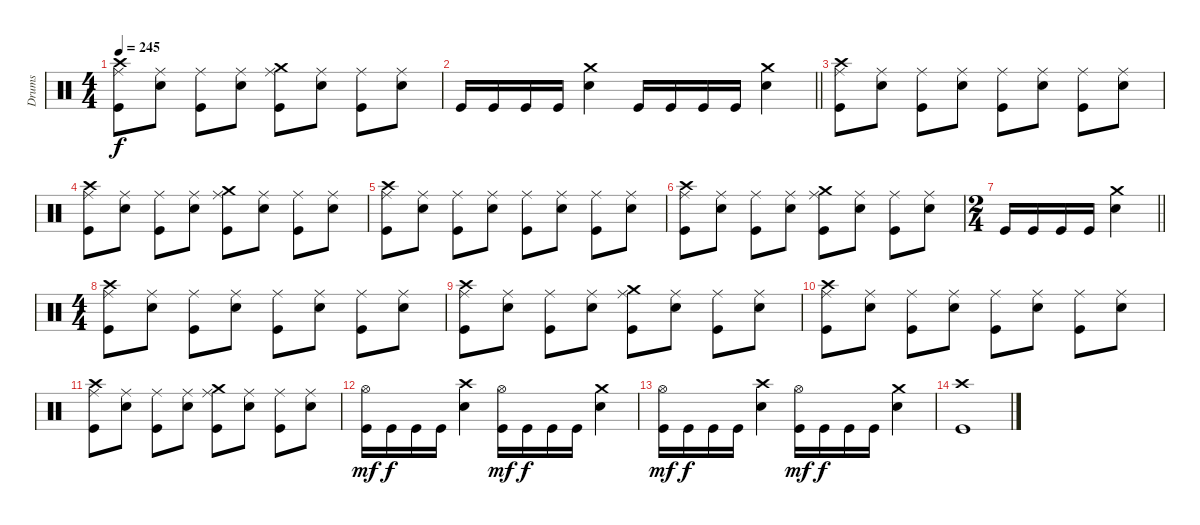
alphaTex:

\track ("Drums" "Drums") {instrument percussion}
\staff {score}
\articulation defaults
\ts (4 4)
\tempo 245
\clef neutral
\ks c
("Crash high (hit)" "Ride (middle)" "Kick (hit)").8{dy f} ("Ride (middle)" "Electric Snare (hit)").8 ("Ride (middle)" "Kick (hit)").8 ("Ride (middle)" "Electric Snare (hit)").8 ("Crash medium (hit)" "Ride (middle)" "Kick (hit)").8 ("Ride (middle)" "Electric Snare (hit)").8 ("Ride (middle)" "Kick (hit)").8 ("Ride (middle)" "Electric Snare (hit)").8 |
\barLineRight lightlight "Kick (hit)".16 "Kick (hit)".16 "Kick (hit)".16 "Kick (hit)".16
("Crash medium (hit)" "Electric Snare (hit)").4 "Kick (hit)".16 "Kick (hit)".16 "Kick (hit)".16 "Kick (hit)".16 ("Crash medium (hit)" "Electric Snare (hit)").4 |
("Crash high (hit)" "Ride (middle)" "Kick (hit)").8 ("Ride (middle)" "Electric Snare (hit)").8 ("Ride (middle)" "Kick (hit)").8 ("Ride (middle)" "Electric Snare (hit)").8 ("Ride (middle)" "Kick (hit)").8 ("Ride (middle)" "Electric Snare (hit)").8 ("Ride (middle)" "Kick (hit)").8 ("Ride (middle)" "Electric Snare (hit)").8 |
("Crash high (hit)" "Ride (middle)" "Kick (hit)").8 ("Ride (middle)" "Electric Snare (hit)").8 ("Ride (middle)" "Kick (hit)").8 ("Ride (middle)" "Electric Snare (hit)").8 ("Crash medium (hit)" "Ride (middle)" "Kick (hit)").8 ("Ride (middle)" "Electric Snare (hit)").8 ("Ride (middle)" "Kick (hit)").8 ("Ride (middle)" "Electric Snare (hit)").8 |
("Crash high (hit)" "Ride (middle)" "Kick (hit)").8 ("Ride (middle)" "Electric Snare (hit)").8 ("Ride (middle)" "Kick (hit)").8 ("Ride (middle)" "Electric Snare (hit)").8 ("Ride (middle)" "Kick (hit)").8 ("Ride (middle)" "Electric Snare (hit)").8 ("Ride (middle)" "Kick (hit)").8 ("Ride (middle)" "Electric Snare (hit)").8 |
("Crash high (hit)" "Ride (middle)" "Kick (hit)").8 ("Ride (middle)" "Electric Snare (hit)").8 ("Ride (middle)" "Kick (hit)").8 ("Ride (middle)" "Electric Snare (hit)").8 ("Crash medium (hit)" "Ride (middle)" "Kick (hit)").8 ("Ride (middle)" "Electric Snare (hit)").8 ("Ride (middle)" "Kick (hit)").8 ("Ride (middle)" "Electric Snare (hit)").8 |
\ts (2 4)
\barLineRight lightlight "Kick (hit)".16 "Kick (hit)".16 "Kick (hit)".16 "Kick (hit)".16
("Crash medium (hit)" "Electric Snare (hit)").4 |
\ts (4 4)
("Crash high (hit)" "Ride (middle)" "Kick (hit)").8 ("Ride (middle)" "Electric Snare (hit)").8 ("Ride (middle)" "Kick (hit)").8 ("Ride (middle)" "Electric Snare (hit)").8 ("Ride (middle)" "Kick (hit)").8 ("Ride (middle)" "Electric Snare (hit)").8 ("Ride (middle)" "Kick (hit)").8 ("Ride (middle)" "Electric Snare (hit)").8 |
("Crash high (hit)" "Ride (middle)" "Kick (hit)").8 ("Ride (middle)" "Electric Snare (hit)").8 ("Ride (middle)" "Kick (hit)").8 ("Ride (middle)" "Electric Snare (hit)").8 ("Crash medium (hit)" "Ride (middle)" "Kick (hit)").8 ("Ride (middle)" "Electric Snare (hit)").8 ("Ride (middle)" "Kick (hit)").8 ("Ride (middle)" "Electric Snare (hit)").8 |
("Crash high (hit)" "Ride (middle)" "Kick (hit)").8 ("Ride (middle)" "Electric Snare (hit)").8 ("Ride (middle)" "Kick (hit)").8 ("Ride (middle)" "Electric Snare (hit)").8 ("Ride (middle)" "Kick (hit)").8 ("Ride (middle)" "Electric Snare (hit)").8 ("Ride (middle)" "Kick (hit)").8 ("Ride (middle)" "Electric Snare (hit)").8 |
("Crash high (hit)" "Ride (middle)" "Kick (hit)").8 ("Ride (middle)" "Electric Snare (hit)").8 ("Ride (middle)" "Kick (hit)").8 ("Ride (middle)" "Electric Snare (hit)").8 ("Crash medium (hit)" "Ride (middle)" "Kick (hit)").8 ("Ride (middle)" "Electric Snare (hit)").8 ("Ride (middle)" "Kick (hit)").8 ("Ride (middle)" "Electric Snare (hit)").8 |
("Hi-Hat (open)" "Kick (hit)").16{dy mf} "Kick (hit)".16{dy f} "Kick (hit)".16 "Kick (hit)".16 ("Crash high (hit)" "Electric Snare (hit)").4 ("Hi-Hat (open)" "Kick (hit)").16{dy mf} "Kick (hit)".16{dy f} "Kick (hit)".16 "Kick (hit)".16 ("Crash medium (hit)" "Electric Snare (hit)").4 |
("Hi-Hat (open)" "Kick (hit)").16{dy mf} "Kick (hit)".16{dy f} "Kick (hit)".16 "Kick (hit)".16 ("Crash high (hit)" "Electric Snare (hit)").4 ("Hi-Hat (open)" "Kick (hit)").16{dy mf} "Kick (hit)".16{dy f} "Kick (hit)".16 "Kick (hit)".16 ("Crash medium (hit)" "Electric Snare (hit)").4 |
("Crash high (hit)" "Kick (hit)").1
